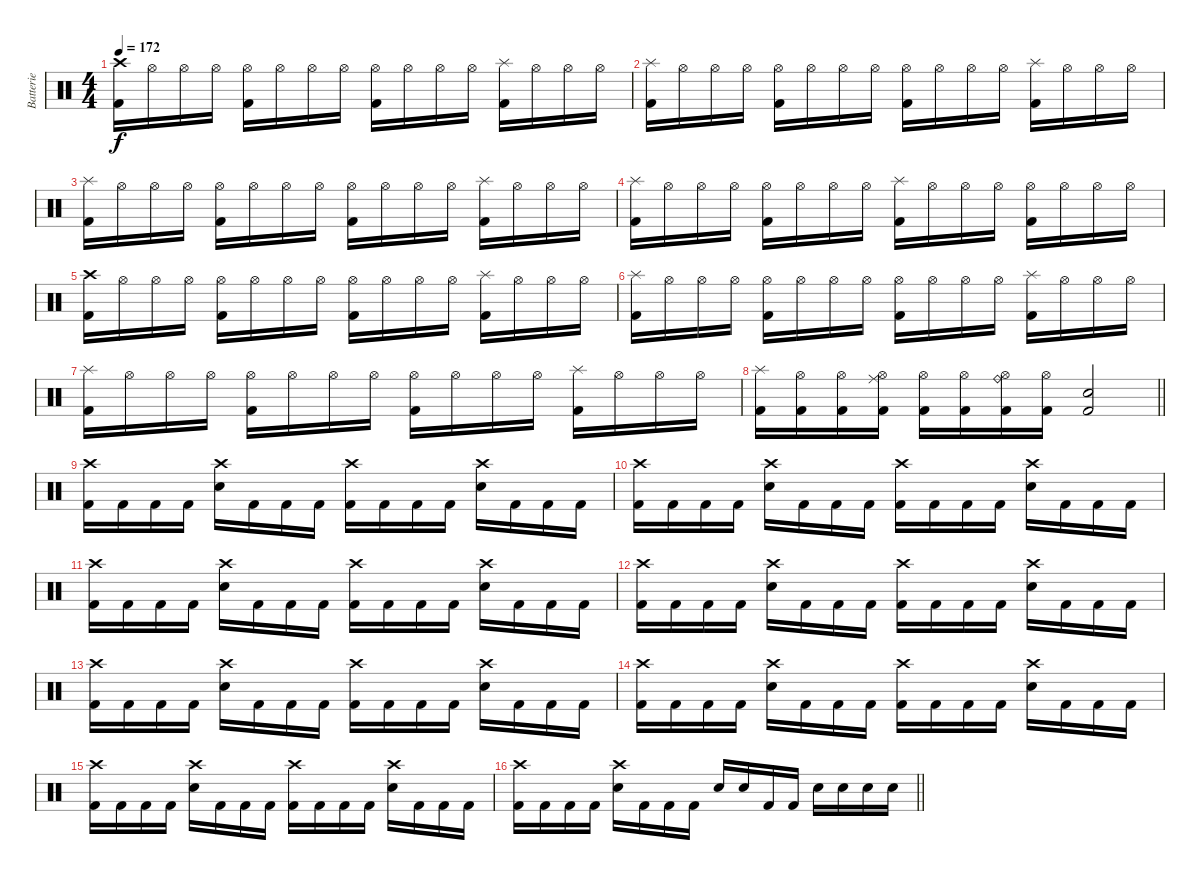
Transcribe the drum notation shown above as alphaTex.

\track ("Batterie" "Batterie") {instrument percussion}
\staff {score}
\articulation defaults
\ts (4 4)
\tempo 172
\clef neutral
\ks c
("Crash high (hit)" "Kick (hit) 2").16{dy f} "Hi-Hat (open)".16 "Hi-Hat (open)".16 "Hi-Hat (open)".16 ("Hi-Hat (open)" "Kick (hit) 2").16 "Hi-Hat (open)".16 "Hi-Hat (open)".16 "Hi-Hat (open)".16 ("Hi-Hat (open)" "Kick (hit) 2").16 "Hi-Hat (open)".16 "Hi-Hat (open)".16 "Hi-Hat (open)".16 ("Splash (hit)" "Kick (hit) 2").16 "Hi-Hat (open)".16 "Hi-Hat (open)".16 "Hi-Hat (open)".16 |
("Splash (hit)" "Kick (hit) 2").16 "Hi-Hat (open)".16 "Hi-Hat (open)".16 "Hi-Hat (open)".16 ("Hi-Hat (open)" "Kick (hit) 2").16 "Hi-Hat (open)".16 "Hi-Hat (open)".16 "Hi-Hat (open)".16 ("Hi-Hat (open)" "Kick (hit) 2").16 "Hi-Hat (open)".16 "Hi-Hat (open)".16 "Hi-Hat (open)".16 ("Splash (hit)" "Kick (hit) 2").16 "Hi-Hat (open)".16 "Hi-Hat (open)".16 "Hi-Hat (open)".16 |
("Splash (hit)" "Kick (hit) 2").16 "Hi-Hat (open)".16 "Hi-Hat (open)".16 "Hi-Hat (open)".16 ("Hi-Hat (open)" "Kick (hit) 2").16 "Hi-Hat (open)".16 "Hi-Hat (open)".16 "Hi-Hat (open)".16 ("Hi-Hat (open)" "Kick (hit) 2").16 "Hi-Hat (open)".16 "Hi-Hat (open)".16 "Hi-Hat (open)".16 ("Splash (hit)" "Kick (hit) 2").16 "Hi-Hat (open)".16 "Hi-Hat (open)".16 "Hi-Hat (open)".16 |
("Splash (hit)" "Kick (hit) 2").16 "Hi-Hat (open)".16 "Hi-Hat (open)".16 "Hi-Hat (open)".16 ("Hi-Hat (open)" "Kick (hit) 2").16 "Hi-Hat (open)".16 "Hi-Hat (open)".16 "Hi-Hat (open)".16 ("Splash (hit)" "Kick (hit) 2").16 "Hi-Hat (open)".16 "Hi-Hat (open)".16 "Hi-Hat (open)".16 ("Hi-Hat (open)" "Kick (hit) 2").16 "Hi-Hat (open)".16 "Hi-Hat (open)".16 "Hi-Hat (open)".16 |
("Crash high (hit)" "Kick (hit) 2").16 "Hi-Hat (open)".16 "Hi-Hat (open)".16 "Hi-Hat (open)".16 ("Hi-Hat (open)" "Kick (hit) 2").16 "Hi-Hat (open)".16 "Hi-Hat (open)".16 "Hi-Hat (open)".16 ("Hi-Hat (open)" "Kick (hit) 2").16 "Hi-Hat (open)".16 "Hi-Hat (open)".16 "Hi-Hat (open)".16 ("Splash (hit)" "Kick (hit) 2").16 "Hi-Hat (open)".16 "Hi-Hat (open)".16 "Hi-Hat (open)".16 |
("Splash (hit)" "Kick (hit) 2").16 "Hi-Hat (open)".16 "Hi-Hat (open)".16 "Hi-Hat (open)".16 ("Hi-Hat (open)" "Kick (hit) 2").16 "Hi-Hat (open)".16 "Hi-Hat (open)".16 "Hi-Hat (open)".16 ("Hi-Hat (open)" "Kick (hit) 2").16 "Hi-Hat (open)".16 "Hi-Hat (open)".16 "Hi-Hat (open)".16 ("Splash (hit)" "Kick (hit) 2").16 "Hi-Hat (open)".16 "Hi-Hat (open)".16 "Hi-Hat (open)".16 |
("Splash (hit)" "Kick (hit) 2").16 "Hi-Hat (open)".16 "Hi-Hat (open)".16 "Hi-Hat (open)".16 ("Hi-Hat (open)" "Kick (hit) 2").16 "Hi-Hat (open)".16 "Hi-Hat (open)".16 "Hi-Hat (open)".16 ("Hi-Hat (open)" "Kick (hit) 2").16 "Hi-Hat (open)".16 "Hi-Hat (open)".16 "Hi-Hat (open)".16 ("Splash (hit)" "Kick (hit) 2").16 "Hi-Hat (open)".16 "Hi-Hat (open)".16 "Hi-Hat (open)".16 |
\barLineRight lightlight
("Splash (hit)" "Kick (hit) 2").16 ("Hi-Hat (open)" "Kick (hit) 2").16 ("Hi-Hat (open)" "Kick (hit) 2").16 ("Ride (middle)" "Hi-Hat (open)" "Kick (hit) 2").16 ("Hi-Hat (open)" "Kick (hit) 2").16 ("Hi-Hat (open)" "Kick (hit) 2").16 ("Ride (bell)" "Hi-Hat (open)" "Kick (hit) 2").16 ("Hi-Hat (open)" "Kick (hit) 2").16 ("Electric Snare (hit)" "Kick (hit) 2").2 |
("Crash high (hit)" "Kick (hit) 2").16 "Kick (hit) 2".16 "Kick (hit) 2".16 "Kick (hit) 2".16 ("Crash high (hit)" "Electric Snare (hit)").16 "Kick (hit) 2".16 "Kick (hit) 2".16 "Kick (hit) 2".16 ("Crash high (hit)" "Kick (hit) 2").16 "Kick (hit) 2".16 "Kick (hit) 2".16 "Kick (hit) 2".16 ("Crash high (hit)" "Electric Snare (hit)").16 "Kick (hit) 2".16 "Kick (hit) 2".16 "Kick (hit) 2".16 |
("Crash high (hit)" "Kick (hit) 2").16 "Kick (hit) 2".16 "Kick (hit) 2".16 "Kick (hit) 2".16 ("Crash high (hit)" "Electric Snare (hit)").16 "Kick (hit) 2".16 "Kick (hit) 2".16 "Kick (hit) 2".16 ("Crash high (hit)" "Kick (hit) 2").16 "Kick (hit) 2".16 "Kick (hit) 2".16 "Kick (hit) 2".16 ("Crash high (hit)" "Electric Snare (hit)").16 "Kick (hit) 2".16 "Kick (hit) 2".16 "Kick (hit) 2".16 |
("Crash high (hit)" "Kick (hit) 2").16 "Kick (hit) 2".16 "Kick (hit) 2".16 "Kick (hit) 2".16 ("Crash high (hit)" "Electric Snare (hit)").16 "Kick (hit) 2".16 "Kick (hit) 2".16 "Kick (hit) 2".16 ("Crash high (hit)" "Kick (hit) 2").16 "Kick (hit) 2".16 "Kick (hit) 2".16 "Kick (hit) 2".16 ("Crash high (hit)" "Electric Snare (hit)").16 "Kick (hit) 2".16 "Kick (hit) 2".16 "Kick (hit) 2".16 |
("Crash high (hit)" "Kick (hit) 2").16 "Kick (hit) 2".16 "Kick (hit) 2".16 "Kick (hit) 2".16 ("Crash high (hit)" "Electric Snare (hit)").16 "Kick (hit) 2".16 "Kick (hit) 2".16 "Kick (hit) 2".16 ("Crash high (hit)" "Kick (hit) 2").16 "Kick (hit) 2".16 "Kick (hit) 2".16 "Kick (hit) 2".16 ("Crash high (hit)" "Electric Snare (hit)").16 "Kick (hit) 2".16 "Kick (hit) 2".16 "Kick (hit) 2".16 |
("Crash high (hit)" "Kick (hit) 2").16 "Kick (hit) 2".16 "Kick (hit) 2".16 "Kick (hit) 2".16 ("Crash high (hit)" "Electric Snare (hit)").16 "Kick (hit) 2".16 "Kick (hit) 2".16 "Kick (hit) 2".16 ("Crash high (hit)" "Kick (hit) 2").16 "Kick (hit) 2".16 "Kick (hit) 2".16 "Kick (hit) 2".16 ("Crash high (hit)" "Electric Snare (hit)").16 "Kick (hit) 2".16 "Kick (hit) 2".16 "Kick (hit) 2".16 |
("Crash high (hit)" "Kick (hit) 2").16 "Kick (hit) 2".16 "Kick (hit) 2".16 "Kick (hit) 2".16 ("Crash high (hit)" "Electric Snare (hit)").16 "Kick (hit) 2".16 "Kick (hit) 2".16 "Kick (hit) 2".16 ("Crash high (hit)" "Kick (hit) 2").16 "Kick (hit) 2".16 "Kick (hit) 2".16 "Kick (hit) 2".16 ("Crash high (hit)" "Electric Snare (hit)").16 "Kick (hit) 2".16 "Kick (hit) 2".16 "Kick (hit) 2".16 |
("Crash high (hit)" "Kick (hit) 2").16 "Kick (hit) 2".16 "Kick (hit) 2".16 "Kick (hit) 2".16 ("Crash high (hit)" "Electric Snare (hit)").16 "Kick (hit) 2".16 "Kick (hit) 2".16 "Kick (hit) 2".16 ("Crash high (hit)" "Kick (hit) 2").16 "Kick (hit) 2".16 "Kick (hit) 2".16 "Kick (hit) 2".16 ("Crash high (hit)" "Electric Snare (hit)").16 "Kick (hit) 2".16 "Kick (hit) 2".16 "Kick (hit) 2".16 |
\barLineRight lightlight
("Crash high (hit)" "Kick (hit) 2").16 "Kick (hit) 2".16 "Kick (hit) 2".16 "Kick (hit) 2".16 ("Crash high (hit)" "Electric Snare (hit)").16 "Kick (hit) 2".16 "Kick (hit) 2".16 "Kick (hit) 2".16 "Electric Snare (hit)".16 "Electric Snare (hit)".16 "Kick (hit) 2".16 "Kick (hit) 2".16 "Electric Snare (hit)".16 "Electric Snare (hit)".16 "Electric Snare (hit)".16 "Electric Snare (hit)".16
